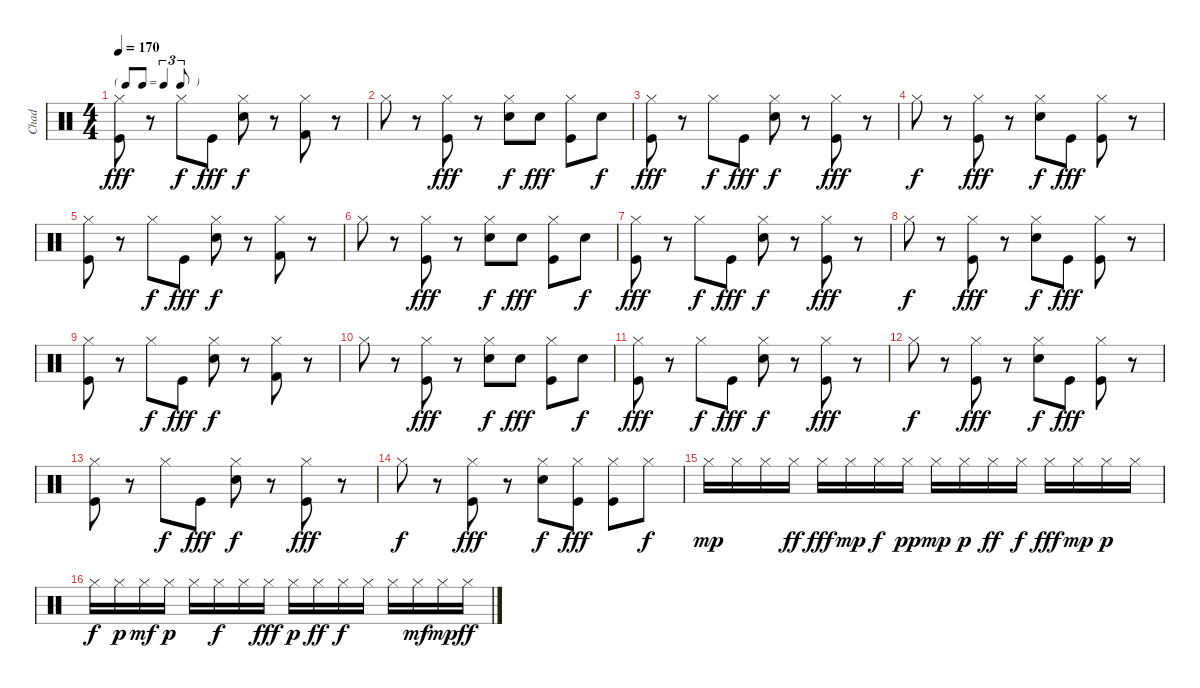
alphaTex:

\track ("Chad" "Chad") {instrument percussion}
\staff {score}
\articulation defaults
\ts (4 4)
\tf triplet8th
\tempo 170
\clef neutral
\ks c
("Hi-Hat (closed)" "Kick (hit)").8{dy fff} r.8 "Hi-Hat (closed)".8{dy f} "Kick (hit)".8{dy fff} ("Hi-Hat (closed)" "Snare (hit) 2").8{dy f} r.8 ("Hi-Hat (closed)" "Kick (hit) 2").8 r.8 |
"Hi-Hat (closed)".8 r.8 ("Hi-Hat (closed)" "Kick (hit)").8{dy fff} r.8 ("Hi-Hat (closed)" "Snare (hit) 2").8{dy f} "Snare (hit) 2".8{dy fff} ("Hi-Hat (closed)" "Kick (hit)").8 "Snare (hit) 2".8{dy f} |
("Hi-Hat (closed)" "Kick (hit)").8{dy fff} r.8 "Hi-Hat (closed)".8{dy f} "Kick (hit)".8{dy fff} ("Hi-Hat (closed)" "Snare (hit) 2").8{dy f} r.8 ("Hi-Hat (closed)" "Kick (hit)").8{dy fff} r.8 |
"Hi-Hat (closed)".8{dy f} r.8 ("Hi-Hat (closed)" "Kick (hit)").8{dy fff} r.8 ("Hi-Hat (closed)" "Snare (hit) 2").8{dy f} "Kick (hit)".8{dy fff} ("Hi-Hat (closed)" "Kick (hit)").8 r.8 |
("Hi-Hat (closed)" "Kick (hit)").8 r.8 "Hi-Hat (closed)".8{dy f} "Kick (hit)".8{dy fff} ("Hi-Hat (closed)" "Snare (hit) 2").8{dy f} r.8 ("Hi-Hat (closed)" "Kick (hit) 2").8 r.8 |
"Hi-Hat (closed)".8 r.8 ("Hi-Hat (closed)" "Kick (hit)").8{dy fff} r.8 ("Hi-Hat (closed)" "Snare (hit) 2").8{dy f} "Snare (hit) 2".8{dy fff} ("Hi-Hat (closed)" "Kick (hit)").8 "Snare (hit) 2".8{dy f} |
("Hi-Hat (closed)" "Kick (hit)").8{dy fff} r.8 "Hi-Hat (closed)".8{dy f} "Kick (hit)".8{dy fff} ("Hi-Hat (closed)" "Snare (hit) 2").8{dy f} r.8 ("Hi-Hat (closed)" "Kick (hit)").8{dy fff} r.8 |
"Hi-Hat (closed)".8{dy f} r.8 ("Hi-Hat (closed)" "Kick (hit)").8{dy fff} r.8 ("Hi-Hat (closed)" "Snare (hit) 2").8{dy f} "Kick (hit)".8{dy fff} ("Hi-Hat (closed)" "Kick (hit)").8 r.8 |
("Hi-Hat (closed)" "Kick (hit)").8 r.8 "Hi-Hat (closed)".8{dy f} "Kick (hit)".8{dy fff} ("Hi-Hat (closed)" "Snare (hit) 2").8{dy f} r.8 ("Hi-Hat (closed)" "Kick (hit) 2").8 r.8 |
"Hi-Hat (closed)".8 r.8 ("Hi-Hat (closed)" "Kick (hit)").8{dy fff} r.8 ("Hi-Hat (closed)" "Snare (hit) 2").8{dy f} "Snare (hit) 2".8{dy fff} ("Hi-Hat (closed)" "Kick (hit)").8 "Snare (hit) 2".8{dy f} |
("Hi-Hat (closed)" "Kick (hit)").8{dy fff} r.8 "Hi-Hat (closed)".8{dy f} "Kick (hit)".8{dy fff} ("Hi-Hat (closed)" "Snare (hit) 2").8{dy f} r.8 ("Hi-Hat (closed)" "Kick (hit)").8{dy fff} r.8 |
"Hi-Hat (closed)".8{dy f} r.8 ("Hi-Hat (closed)" "Kick (hit)").8{dy fff} r.8 ("Hi-Hat (closed)" "Snare (hit) 2").8{dy f} "Kick (hit)".8{dy fff} ("Hi-Hat (closed)" "Kick (hit)").8 r.8 |
("Hi-Hat (closed)" "Kick (hit)").8 r.8 "Hi-Hat (closed)".8{dy f} "Kick (hit)".8{dy fff} ("Hi-Hat (closed)" "Snare (hit) 2").8{dy f} r.8 ("Hi-Hat (closed)" "Kick (hit)").8{dy fff} r.8 |
"Hi-Hat (closed)".8{dy f} r.8 ("Hi-Hat (closed)" "Kick (hit)").8{dy fff} r.8 ("Hi-Hat (closed)" "Snare (hit) 2").8{dy f} ("Hi-Hat (closed)" "Kick (hit)").8{dy fff} ("Hi-Hat (closed)" "Kick (hit)").8 "Hi-Hat (closed)".8{dy f} |
"Hi-Hat (closed)".16{dy mp} "Hi-Hat (closed)".16 "Hi-Hat (closed)".16 "Hi-Hat (closed)".16{dy ff} "Hi-Hat (closed)".16{dy fff} "Hi-Hat (closed)".16{dy mp} "Hi-Hat (closed)".16{dy f} "Hi-Hat (closed)".16{dy pp} "Hi-Hat (closed)".16{dy mp} "Hi-Hat (closed)".16{dy p} "Hi-Hat (closed)".16{dy ff} "Hi-Hat (closed)".16{dy f} "Hi-Hat (closed)".16{dy fff} "Hi-Hat (closed)".16{dy mp} "Hi-Hat (closed)".16{dy p} "Hi-Hat (closed)".16 |
"Hi-Hat (closed)".16{dy f} "Hi-Hat (closed)".16{dy p} "Hi-Hat (closed)".16{dy mf} "Hi-Hat (closed)".16{dy p} "Hi-Hat (closed)".16 "Hi-Hat (closed)".16{dy f} "Hi-Hat (closed)".16 "Hi-Hat (closed)".16{dy fff} "Hi-Hat (closed)".16{dy p} "Hi-Hat (closed)".16{dy ff} "Hi-Hat (closed)".16{dy f} "Hi-Hat (closed)".16 "Hi-Hat (closed)".16 "Hi-Hat (closed)".16{dy mf} "Hi-Hat (closed)".16{dy mp} "Hi-Hat (closed)".16{dy ff}
